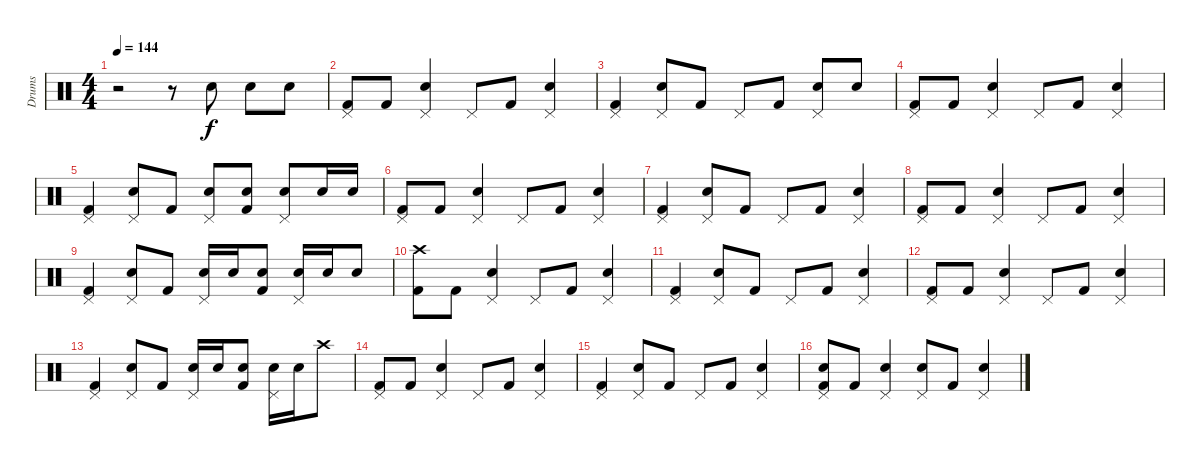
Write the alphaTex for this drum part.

\track ("Drums" "Drums") {instrument percussion}
\staff {score}
\articulation defaults
\ts (4 4)
\tempo 144
\clef neutral
\ks c
r.2{dy f} r.8 "Electric Snare (hit)".8 "Electric Snare (hit)".8 "Electric Snare (hit)".8 |
("Pedal Hi-Hat (hit)" "Kick (hit) 2").8 "Kick (hit) 2".8 ("Pedal Hi-Hat (hit)" "Electric Snare (hit)").4 "Pedal Hi-Hat (hit)".8 "Kick (hit) 2".8 ("Pedal Hi-Hat (hit)" "Electric Snare (hit)").4 |
("Kick (hit) 2" "Pedal Hi-Hat (hit)").4 ("Electric Snare (hit)" "Pedal Hi-Hat (hit)").8 "Kick (hit) 2".8 "Pedal Hi-Hat (hit)".8 "Kick (hit) 2".8 ("Electric Snare (hit)" "Pedal Hi-Hat (hit)").8 "Electric Snare (hit)".8 |
("Pedal Hi-Hat (hit)" "Kick (hit) 2").8 "Kick (hit) 2".8 ("Pedal Hi-Hat (hit)" "Electric Snare (hit)").4 "Pedal Hi-Hat (hit)".8 "Kick (hit) 2".8 ("Pedal Hi-Hat (hit)" "Electric Snare (hit)").4 |
("Kick (hit) 2" "Pedal Hi-Hat (hit)").4 ("Electric Snare (hit)" "Pedal Hi-Hat (hit)").8 "Kick (hit) 2".8 ("Electric Snare (hit)" "Pedal Hi-Hat (hit)").8 ("Electric Snare (hit)" "Kick (hit) 2").8 ("Electric Snare (hit)" "Pedal Hi-Hat (hit)").8 "Electric Snare (hit)".16 "Electric Snare (hit)".16 |
("Pedal Hi-Hat (hit)" "Kick (hit) 2").8 "Kick (hit) 2".8 ("Pedal Hi-Hat (hit)" "Electric Snare (hit)").4 "Pedal Hi-Hat (hit)".8 "Kick (hit) 2".8 ("Pedal Hi-Hat (hit)" "Electric Snare (hit)").4 |
("Kick (hit) 2" "Pedal Hi-Hat (hit)").4 ("Electric Snare (hit)" "Pedal Hi-Hat (hit)").8 "Kick (hit) 2".8 "Pedal Hi-Hat (hit)".8 "Kick (hit) 2".8 ("Electric Snare (hit)" "Pedal Hi-Hat (hit)").4 |
("Pedal Hi-Hat (hit)" "Kick (hit) 2").8 "Kick (hit) 2".8 ("Pedal Hi-Hat (hit)" "Electric Snare (hit)").4 "Pedal Hi-Hat (hit)".8 "Kick (hit) 2".8 ("Pedal Hi-Hat (hit)" "Electric Snare (hit)").4 |
("Kick (hit) 2" "Pedal Hi-Hat (hit)").4 ("Electric Snare (hit)" "Pedal Hi-Hat (hit)").8 "Kick (hit) 2".8 ("Electric Snare (hit)" "Pedal Hi-Hat (hit)").16 "Electric Snare (hit)".16 ("Electric Snare (hit)" "Kick (hit) 2").8 ("Electric Snare (hit)" "Pedal Hi-Hat (hit)").16 "Electric Snare (hit)".16 "Electric Snare (hit)".8 |
("Crash high (hit)" "Kick (hit) 2").8 "Kick (hit) 2".8 ("Pedal Hi-Hat (hit)" "Electric Snare (hit)").4 "Pedal Hi-Hat (hit)".8 "Kick (hit) 2".8 ("Pedal Hi-Hat (hit)" "Electric Snare (hit)").4 |
("Kick (hit) 2" "Pedal Hi-Hat (hit)").4 ("Electric Snare (hit)" "Pedal Hi-Hat (hit)").8 "Kick (hit) 2".8 "Pedal Hi-Hat (hit)".8 "Kick (hit) 2".8 ("Electric Snare (hit)" "Pedal Hi-Hat (hit)").4 |
("Pedal Hi-Hat (hit)" "Kick (hit) 2").8 "Kick (hit) 2".8 ("Pedal Hi-Hat (hit)" "Electric Snare (hit)").4 "Pedal Hi-Hat (hit)".8 "Kick (hit) 2".8 ("Pedal Hi-Hat (hit)" "Electric Snare (hit)").4 |
("Kick (hit) 2" "Pedal Hi-Hat (hit)").4 ("Electric Snare (hit)" "Pedal Hi-Hat (hit)").8 "Kick (hit) 2".8 ("Electric Snare (hit)" "Pedal Hi-Hat (hit)").16 "Electric Snare (hit)".16 ("Electric Snare (hit)" "Kick (hit) 2").8 ("Electric Snare (hit)" "Pedal Hi-Hat (hit)").16 "Electric Snare (hit)".16 "Crash high (hit)".8 |
("Pedal Hi-Hat (hit)" "Kick (hit) 2").8 "Kick (hit) 2".8 ("Pedal Hi-Hat (hit)" "Electric Snare (hit)").4 "Pedal Hi-Hat (hit)".8 "Kick (hit) 2".8 ("Pedal Hi-Hat (hit)" "Electric Snare (hit)").4 |
("Kick (hit) 2" "Pedal Hi-Hat (hit)").4 ("Electric Snare (hit)" "Pedal Hi-Hat (hit)").8 "Kick (hit) 2".8 "Pedal Hi-Hat (hit)".8 "Kick (hit) 2".8 ("Electric Snare (hit)" "Pedal Hi-Hat (hit)").4 |
("Electric Snare (hit)" "Pedal Hi-Hat (hit)" "Kick (hit) 2").8 "Kick (hit) 2".8 ("Pedal Hi-Hat (hit)" "Electric Snare (hit)").4 ("Electric Snare (hit)" "Pedal Hi-Hat (hit)").8 "Kick (hit) 2".8 ("Pedal Hi-Hat (hit)" "Electric Snare (hit)").4
